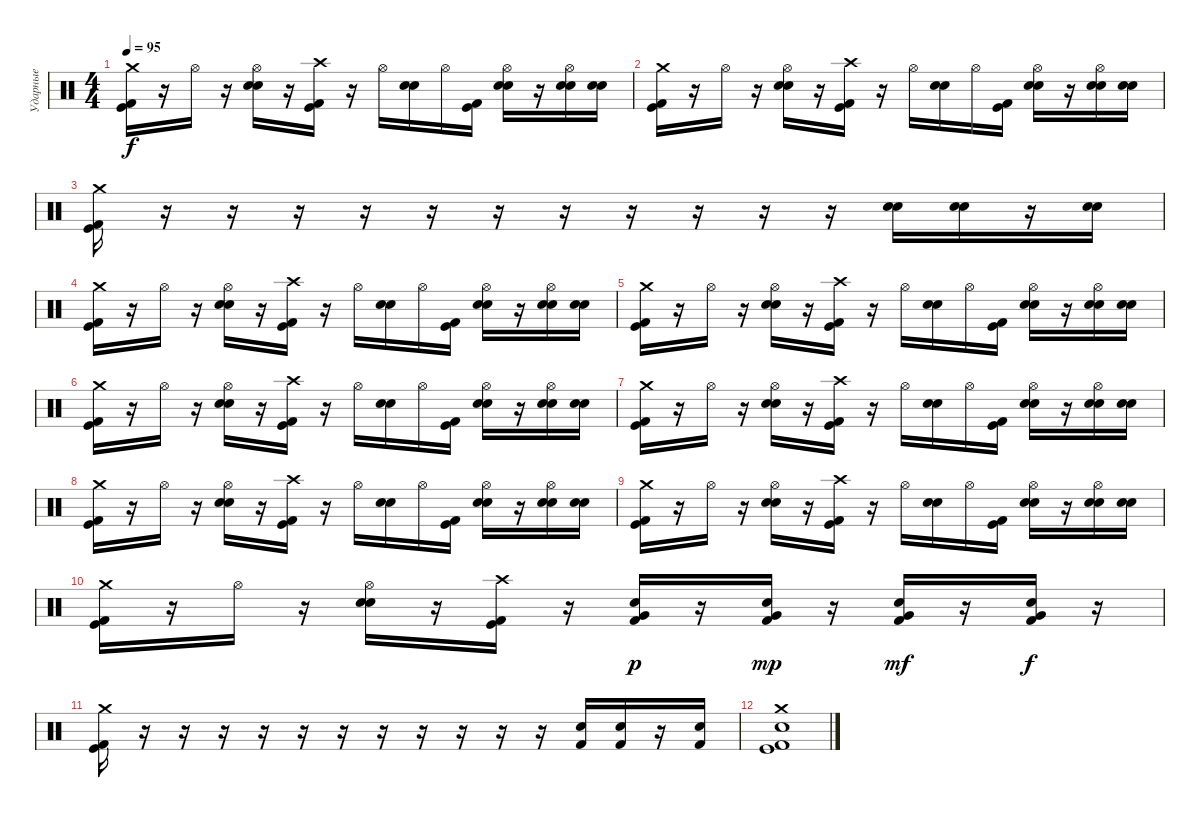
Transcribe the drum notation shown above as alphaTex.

\track ("Ударные" "Ударные") {instrument percussion}
\staff {score}
\articulation defaults
\ts (4 4)
\tempo 95
\clef neutral
\ks c
("Crash medium (hit)" "Kick (hit)" "Kick (hit) 2").16{dy f} r.16 "Hi-Hat (open)".16 r.16 ("Hi-Hat (open)" "Electric Snare (hit)" "Snare (hit) 2").16 r.16 ("Crash high (hit)" "Kick (hit)" "Kick (hit) 2").16 r.16 "Hi-Hat (open)".16 ("Snare (hit) 2" "Electric Snare (hit)").16 "Hi-Hat (open)".16 ("Kick (hit)" "Kick (hit) 2").16 ("Hi-Hat (open)" "Electric Snare (hit)" "Snare (hit) 2").16 r.16 ("Hi-Hat (open)" "Snare (hit) 2" "Electric Snare (hit)").16 ("Snare (hit) 2" "Electric Snare (hit)").16 |
("Crash medium (hit)" "Kick (hit)" "Kick (hit) 2").16 r.16 "Hi-Hat (open)".16 r.16 ("Hi-Hat (open)" "Electric Snare (hit)" "Snare (hit) 2").16 r.16 ("Crash high (hit)" "Kick (hit)" "Kick (hit) 2").16 r.16 "Hi-Hat (open)".16 ("Snare (hit) 2" "Electric Snare (hit)").16 "Hi-Hat (open)".16 ("Kick (hit)" "Kick (hit) 2").16 ("Hi-Hat (open)" "Electric Snare (hit)" "Snare (hit) 2").16 r.16 ("Hi-Hat (open)" "Snare (hit) 2" "Electric Snare (hit)").16 ("Snare (hit) 2" "Electric Snare (hit)").16 |
("Crash medium (hit)" "Kick (hit)" "Kick (hit) 2").16 r.16 r.16 r.16 r.16 r.16 r.16 r.16 r.16 r.16 r.16 r.16 ("Electric Snare (hit)" "Snare (hit) 2").16 ("Electric Snare (hit)" "Snare (hit) 2").16 r.16 ("Snare (hit) 2" "Electric Snare (hit)").16 |
("Crash medium (hit)" "Kick (hit)" "Kick (hit) 2").16 r.16 "Hi-Hat (open)".16 r.16 ("Hi-Hat (open)" "Electric Snare (hit)" "Snare (hit) 2").16 r.16 ("Crash high (hit)" "Kick (hit)" "Kick (hit) 2").16 r.16 "Hi-Hat (open)".16 ("Snare (hit) 2" "Electric Snare (hit)").16 "Hi-Hat (open)".16 ("Kick (hit)" "Kick (hit) 2").16 ("Hi-Hat (open)" "Electric Snare (hit)" "Snare (hit) 2").16 r.16 ("Hi-Hat (open)" "Snare (hit) 2" "Electric Snare (hit)").16 ("Snare (hit) 2" "Electric Snare (hit)").16 |
("Crash medium (hit)" "Kick (hit)" "Kick (hit) 2").16 r.16 "Hi-Hat (open)".16 r.16 ("Hi-Hat (open)" "Electric Snare (hit)" "Snare (hit) 2").16 r.16 ("Crash high (hit)" "Kick (hit)" "Kick (hit) 2").16 r.16 "Hi-Hat (open)".16 ("Snare (hit) 2" "Electric Snare (hit)").16 "Hi-Hat (open)".16 ("Kick (hit)" "Kick (hit) 2").16 ("Hi-Hat (open)" "Electric Snare (hit)" "Snare (hit) 2").16 r.16 ("Hi-Hat (open)" "Snare (hit) 2" "Electric Snare (hit)").16 ("Snare (hit) 2" "Electric Snare (hit)").16 |
("Crash medium (hit)" "Kick (hit)" "Kick (hit) 2").16 r.16 "Hi-Hat (open)".16 r.16 ("Hi-Hat (open)" "Electric Snare (hit)" "Snare (hit) 2").16 r.16 ("Crash high (hit)" "Kick (hit)" "Kick (hit) 2").16 r.16 "Hi-Hat (open)".16 ("Snare (hit) 2" "Electric Snare (hit)").16 "Hi-Hat (open)".16 ("Kick (hit)" "Kick (hit) 2").16 ("Hi-Hat (open)" "Electric Snare (hit)" "Snare (hit) 2").16 r.16 ("Hi-Hat (open)" "Snare (hit) 2" "Electric Snare (hit)").16 ("Snare (hit) 2" "Electric Snare (hit)").16 |
("Crash medium (hit)" "Kick (hit)" "Kick (hit) 2").16 r.16 "Hi-Hat (open)".16 r.16 ("Hi-Hat (open)" "Electric Snare (hit)" "Snare (hit) 2").16 r.16 ("Crash high (hit)" "Kick (hit)" "Kick (hit) 2").16 r.16 "Hi-Hat (open)".16 ("Snare (hit) 2" "Electric Snare (hit)").16 "Hi-Hat (open)".16 ("Kick (hit)" "Kick (hit) 2").16 ("Hi-Hat (open)" "Electric Snare (hit)" "Snare (hit) 2").16 r.16 ("Hi-Hat (open)" "Snare (hit) 2" "Electric Snare (hit)").16 ("Snare (hit) 2" "Electric Snare (hit)").16 |
("Crash medium (hit)" "Kick (hit)" "Kick (hit) 2").16 r.16 "Hi-Hat (open)".16 r.16 ("Hi-Hat (open)" "Electric Snare (hit)" "Snare (hit) 2").16 r.16 ("Crash high (hit)" "Kick (hit)" "Kick (hit) 2").16 r.16 "Hi-Hat (open)".16 ("Snare (hit) 2" "Electric Snare (hit)").16 "Hi-Hat (open)".16 ("Kick (hit)" "Kick (hit) 2").16 ("Hi-Hat (open)" "Electric Snare (hit)" "Snare (hit) 2").16 r.16 ("Hi-Hat (open)" "Snare (hit) 2" "Electric Snare (hit)").16 ("Snare (hit) 2" "Electric Snare (hit)").16 |
("Crash medium (hit)" "Kick (hit)" "Kick (hit) 2").16 r.16 "Hi-Hat (open)".16 r.16 ("Hi-Hat (open)" "Electric Snare (hit)" "Snare (hit) 2").16 r.16 ("Crash high (hit)" "Kick (hit)" "Kick (hit) 2").16 r.16 "Hi-Hat (open)".16 ("Snare (hit) 2" "Electric Snare (hit)").16 "Hi-Hat (open)".16 ("Kick (hit)" "Kick (hit) 2").16 ("Hi-Hat (open)" "Electric Snare (hit)" "Snare (hit) 2").16 r.16 ("Hi-Hat (open)" "Snare (hit) 2" "Electric Snare (hit)").16 ("Snare (hit) 2" "Electric Snare (hit)").16 |
("Crash medium (hit)" "Kick (hit)" "Kick (hit) 2").16 r.16 "Hi-Hat (open)".16 r.16 ("Hi-Hat (open)" "Electric Snare (hit)" "Snare (hit) 2").16 r.16 ("Crash high (hit)" "Kick (hit)" "Kick (hit) 2").16 r.16 ("Very Low Tom (hit)" "Electric Snare (hit)" "Kick (hit) 2").16{dy p} r.16 ("Very Low Tom (hit)" "Snare (hit) 2" "Kick (hit) 2").16{dy mp} r.16 ("Very Low Tom (hit)" "Electric Snare (hit)" "Kick (hit) 2").16{dy mf} r.16 ("Very Low Tom (hit)" "Electric Snare (hit)" "Kick (hit) 2").16{dy f} r.16 |
("Crash medium (hit)" "Kick (hit)" "Kick (hit) 2").16 r.16 r.16 r.16 r.16 r.16 r.16 r.16 r.16 r.16 r.16 r.16 ("Electric Snare (hit)" "Kick (hit) 2").16 ("Electric Snare (hit)" "Kick (hit) 2").16 r.16 ("Electric Snare (hit)" "Kick (hit) 2").16 |
("Crash medium (hit)" "Electric Snare (hit)" "Kick (hit)" "Kick (hit) 2").1
